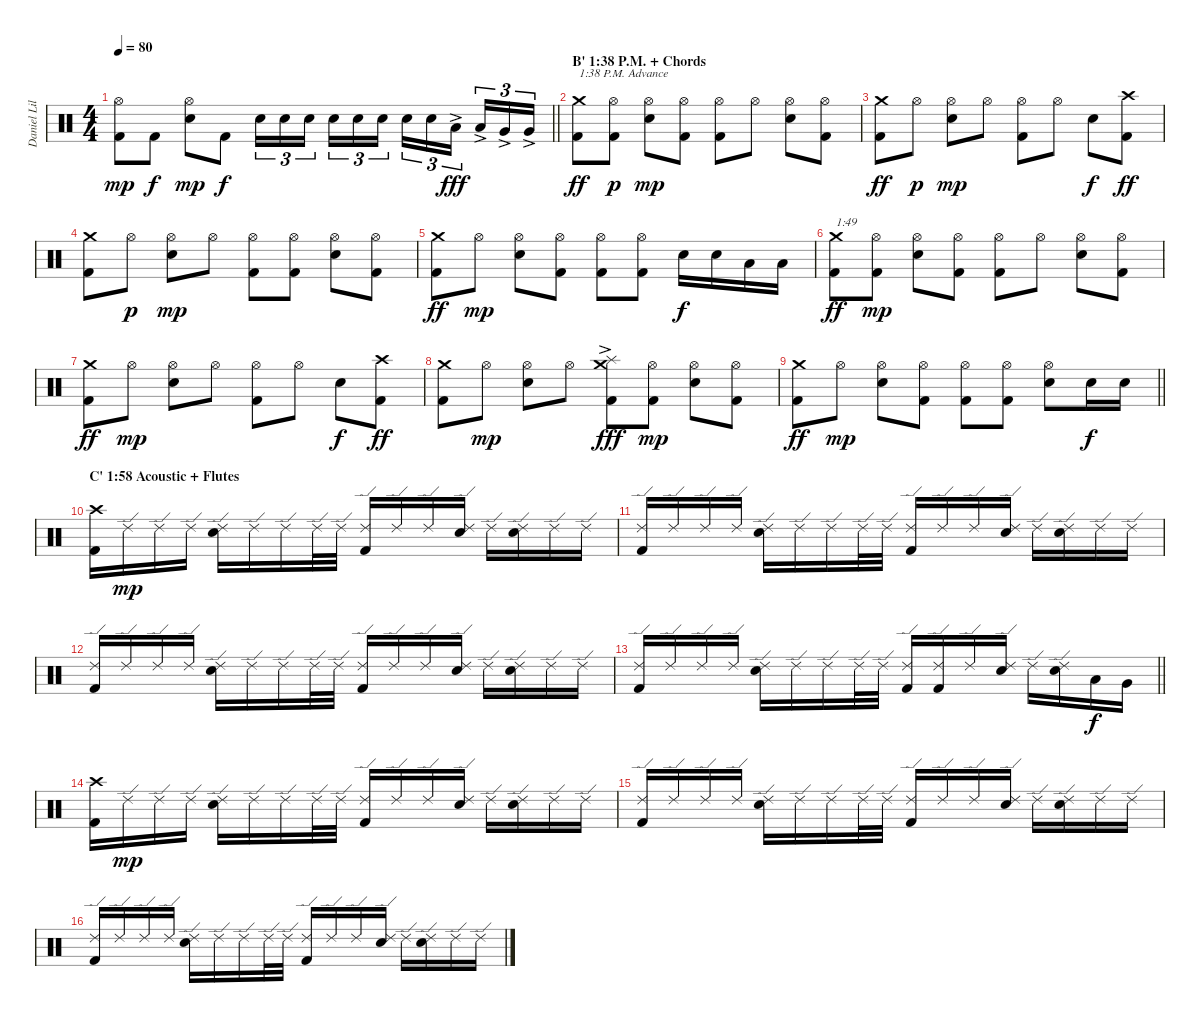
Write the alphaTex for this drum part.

\track ("Daniel Liljekvist (Drums)" "Daniel Lil") {instrument percussion}
\staff {score}
\articulation defaults
\ts (4 4)
\tempo 80
\clef neutral
\barLineRight lightlight
\ks c
("Kick (hit) 2" "Hi-Hat (open)").8{dy mp} "Kick (hit) 2".8{dy f} ("Electric Snare (hit)" "Hi-Hat (open)").8{dy mp} "Kick (hit) 2".8{dy f} "Electric Snare (hit)".16{tu (3 2)} "Electric Snare (hit)".16{tu (3 2)} "Electric Snare (hit)".16{tu (3 2) beam splitsecondary} "Electric Snare (hit)".16{tu (3 2)} "Electric Snare (hit)".16{tu (3 2)} "Electric Snare (hit)".16{tu (3 2)} "Electric Snare (hit)".16{tu (3 2)} "Electric Snare (hit)".16{tu (3 2)} "Low Tom (hit)"{ac}.16{tu (3 2) dy fff beam splitsecondary} "Low Tom (hit)"{ac}.16{tu (3 2)} "Very Low Tom (hit)"{ac}.16{tu (3 2)} "Very Low Tom (hit)"{ac}.16{tu (3 2)} |
\section ("" "B' 1:38 P.M. + Chords")
("Kick (hit) 2" "Crash medium (hit)").8{txt "1:38 P.M. Advance" dy ff} ("Kick (hit) 2" "Hi-Hat (open)").8{dy p} ("Electric Snare (hit)" "Hi-Hat (open)").8{dy mp} ("Kick (hit) 2" "Hi-Hat (open)").8 ("Kick (hit) 2" "Hi-Hat (open)").8 "Hi-Hat (open)".8 ("Electric Snare (hit)" "Hi-Hat (open)").8 ("Kick (hit) 2" "Hi-Hat (open)").8 |
("Kick (hit) 2" "Crash medium (hit)").8{dy ff} "Hi-Hat (open)".8{dy p} ("Electric Snare (hit)" "Hi-Hat (open)").8{dy mp} "Hi-Hat (open)".8 ("Kick (hit) 2" "Hi-Hat (open)").8 "Hi-Hat (open)".8 "Electric Snare (hit)".8{dy f} ("Kick (hit) 2" "Crash high (hit)").8{dy ff} |
("Kick (hit) 2" "Crash medium (hit)").8 "Hi-Hat (open)".8{dy p} ("Electric Snare (hit)" "Hi-Hat (open)").8{dy mp} "Hi-Hat (open)".8 ("Kick (hit) 2" "Hi-Hat (open)").8 ("Kick (hit) 2" "Hi-Hat (open)").8 ("Electric Snare (hit)" "Hi-Hat (open)").8 ("Kick (hit) 2" "Hi-Hat (open)").8 |
("Kick (hit) 2" "Crash medium (hit)").8{dy ff} "Hi-Hat (open)".8{dy mp} ("Electric Snare (hit)" "Hi-Hat (open)").8 ("Kick (hit) 2" "Hi-Hat (open)").8 ("Kick (hit) 2" "Hi-Hat (open)").8 ("Kick (hit) 2" "Hi-Hat (open)").8 "Electric Snare (hit)".16{dy f} "Electric Snare (hit)".16 "Low Tom (hit)".16 "Low Tom (hit)".16 |
("Kick (hit) 2" "Crash medium (hit)").8{txt "1:49" dy ff} ("Kick (hit) 2" "Hi-Hat (open)").8{dy mp} ("Electric Snare (hit)" "Hi-Hat (open)").8 ("Kick (hit) 2" "Hi-Hat (open)").8 ("Kick (hit) 2" "Hi-Hat (open)").8 "Hi-Hat (open)".8 ("Electric Snare (hit)" "Hi-Hat (open)").8 ("Kick (hit) 2" "Hi-Hat (open)").8 |
("Kick (hit) 2" "Crash medium (hit)").8{dy ff} "Hi-Hat (open)".8{dy mp} ("Electric Snare (hit)" "Hi-Hat (open)").8 "Hi-Hat (open)".8 ("Kick (hit) 2" "Hi-Hat (open)").8 "Hi-Hat (open)".8 "Electric Snare (hit)".8{dy f} ("Kick (hit) 2" "Crash high (hit)").8{dy ff} |
("Kick (hit) 2" "Crash medium (hit)").8 "Hi-Hat (open)".8{dy mp} ("Electric Snare (hit)" "Hi-Hat (open)").8 "Hi-Hat (open)".8 ("Kick (hit) 2" "Crash medium (hit)" "Splash (hit)"{ac}).8{dy fff} ("Kick (hit) 2" "Hi-Hat (open)").8{dy mp} ("Electric Snare (hit)" "Hi-Hat (open)").8 ("Kick (hit) 2" "Hi-Hat (open)").8 |
\barLineRight lightlight
("Kick (hit) 2" "Crash medium (hit)").8{dy ff} "Hi-Hat (open)".8{dy mp} ("Electric Snare (hit)" "Hi-Hat (open)").8 ("Kick (hit) 2" "Hi-Hat (open)").8 ("Kick (hit) 2" "Hi-Hat (open)").8 ("Kick (hit) 2" "Hi-Hat (open)").8 ("Electric Snare (hit)" "Hi-Hat (open)").8 "Electric Snare (hit)".16{dy f} "Electric Snare (hit)".16 |
\section ("" "C' 1:58 Acoustic + Flutes")
("Kick (hit) 2" "Crash high (hit)").16 "Ride (edge) 2".16{dy mp} "Ride (edge) 2".16 "Ride (edge) 2".16 ("Electric Snare (hit)" "Ride (edge) 2").16 "Ride (edge) 2".16 "Ride (edge) 2".16 "Ride (edge) 2".32 "Ride (edge) 2".32 ("Kick (hit) 2" "Ride (edge) 2").16 "Ride (edge) 2".16 "Ride (edge) 2".16 ("Electric Snare (hit)" "Ride (edge) 2").16 "Ride (edge) 2".16 ("Electric Snare (hit)" "Ride (edge) 2").16 "Ride (edge) 2".16 "Ride (edge) 2".16 |
("Kick (hit) 2" "Ride (edge) 2").16 "Ride (edge) 2".16 "Ride (edge) 2".16 "Ride (edge) 2".16 ("Electric Snare (hit)" "Ride (edge) 2").16 "Ride (edge) 2".16 "Ride (edge) 2".16 "Ride (edge) 2".32 "Ride (edge) 2".32 ("Kick (hit) 2" "Ride (edge) 2").16 "Ride (edge) 2".16 "Ride (edge) 2".16 ("Electric Snare (hit)" "Ride (edge) 2").16 "Ride (edge) 2".16 ("Electric Snare (hit)" "Ride (edge) 2").16 "Ride (edge) 2".16 "Ride (edge) 2".16 |
("Kick (hit) 2" "Ride (edge) 2").16 "Ride (edge) 2".16 "Ride (edge) 2".16 "Ride (edge) 2".16 ("Electric Snare (hit)" "Ride (edge) 2").16 "Ride (edge) 2".16 "Ride (edge) 2".16 "Ride (edge) 2".32 "Ride (edge) 2".32 ("Kick (hit) 2" "Ride (edge) 2").16 "Ride (edge) 2".16 "Ride (edge) 2".16 ("Electric Snare (hit)" "Ride (edge) 2").16 "Ride (edge) 2".16 ("Electric Snare (hit)" "Ride (edge) 2").16 "Ride (edge) 2".16 "Ride (edge) 2".16 |
\barLineRight lightlight
("Kick (hit) 2" "Ride (edge) 2").16 "Ride (edge) 2".16 "Ride (edge) 2".16 "Ride (edge) 2".16 ("Electric Snare (hit)" "Ride (edge) 2").16 "Ride (edge) 2".16 "Ride (edge) 2".16 "Ride (edge) 2".32 "Ride (edge) 2".32 ("Kick (hit) 2" "Ride (edge) 2").16 ("Kick (hit) 2" "Ride (edge) 2").16 "Ride (edge) 2".16 ("Electric Snare (hit)" "Ride (edge) 2").16 "Ride (edge) 2".16 ("Electric Snare (hit)" "Ride (edge) 2").16 "Low Tom (hit)".16{dy f} "Very Low Tom (hit)".16 |
("Kick (hit) 2" "Crash high (hit)").16 "Ride (edge) 2".16{dy mp} "Ride (edge) 2".16 "Ride (edge) 2".16 ("Electric Snare (hit)" "Ride (edge) 2").16 "Ride (edge) 2".16 "Ride (edge) 2".16 "Ride (edge) 2".32 "Ride (edge) 2".32 ("Kick (hit) 2" "Ride (edge) 2").16 "Ride (edge) 2".16 "Ride (edge) 2".16 ("Electric Snare (hit)" "Ride (edge) 2").16 "Ride (edge) 2".16 ("Electric Snare (hit)" "Ride (edge) 2").16 "Ride (edge) 2".16 "Ride (edge) 2".16 |
("Kick (hit) 2" "Ride (edge) 2").16 "Ride (edge) 2".16 "Ride (edge) 2".16 "Ride (edge) 2".16 ("Electric Snare (hit)" "Ride (edge) 2").16 "Ride (edge) 2".16 "Ride (edge) 2".16 "Ride (edge) 2".32 "Ride (edge) 2".32 ("Kick (hit) 2" "Ride (edge) 2").16 "Ride (edge) 2".16 "Ride (edge) 2".16 ("Electric Snare (hit)" "Ride (edge) 2").16 "Ride (edge) 2".16 ("Electric Snare (hit)" "Ride (edge) 2").16 "Ride (edge) 2".16 "Ride (edge) 2".16 |
("Kick (hit) 2" "Ride (edge) 2").16 "Ride (edge) 2".16 "Ride (edge) 2".16 "Ride (edge) 2".16 ("Electric Snare (hit)" "Ride (edge) 2").16 "Ride (edge) 2".16 "Ride (edge) 2".16 "Ride (edge) 2".32 "Ride (edge) 2".32 ("Kick (hit) 2" "Ride (edge) 2").16 "Ride (edge) 2".16 "Ride (edge) 2".16 ("Electric Snare (hit)" "Ride (edge) 2").16 "Ride (edge) 2".16 ("Electric Snare (hit)" "Ride (edge) 2").16 "Ride (edge) 2".16 "Ride (edge) 2".16
